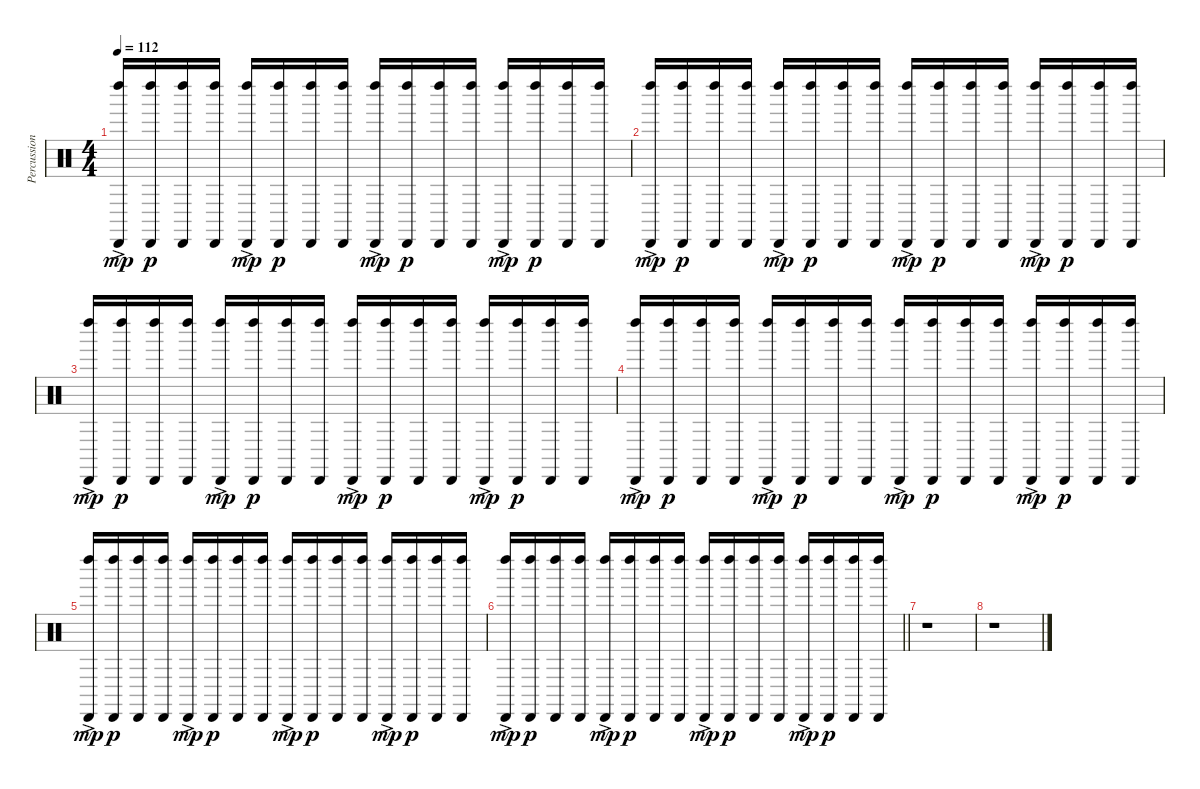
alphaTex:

\track ("Percussion" "Percussion") {instrument percussion}
\staff {score}
\articulation defaults
\ts (4 4)
\tempo 112
\clef neutral
\ks c
("Left Maraca (hit)"{ac} "Cabasa (hit)"{ac}).16{dy mp} ("Left Maraca (hit)" "Cabasa (hit)").16{dy p} ("Left Maraca (hit)" "Cabasa (hit)").16 ("Left Maraca (hit)" "Cabasa (hit)").16 ("Left Maraca (hit)"{ac} "Cabasa (hit)"{ac}).16{dy mp} ("Left Maraca (hit)" "Cabasa (hit)").16{dy p} ("Left Maraca (hit)" "Cabasa (hit)").16 ("Left Maraca (hit)" "Cabasa (hit)").16 ("Left Maraca (hit)"{ac} "Cabasa (hit)"{ac}).16{dy mp} ("Left Maraca (hit)" "Cabasa (hit)").16{dy p} ("Left Maraca (hit)" "Cabasa (hit)").16 ("Left Maraca (hit)" "Cabasa (hit)").16 ("Left Maraca (hit)"{ac} "Cabasa (hit)"{ac}).16{dy mp} ("Left Maraca (hit)" "Cabasa (hit)").16{dy p} ("Left Maraca (hit)" "Cabasa (hit)").16 ("Left Maraca (hit)" "Cabasa (hit)").16 |
("Left Maraca (hit)"{ac} "Cabasa (hit)"{ac}).16{dy mp} ("Left Maraca (hit)" "Cabasa (hit)").16{dy p} ("Left Maraca (hit)" "Cabasa (hit)").16 ("Left Maraca (hit)" "Cabasa (hit)").16 ("Left Maraca (hit)"{ac} "Cabasa (hit)"{ac}).16{dy mp} ("Left Maraca (hit)" "Cabasa (hit)").16{dy p} ("Left Maraca (hit)" "Cabasa (hit)").16 ("Left Maraca (hit)" "Cabasa (hit)").16 ("Left Maraca (hit)"{ac} "Cabasa (hit)"{ac}).16{dy mp} ("Left Maraca (hit)" "Cabasa (hit)").16{dy p} ("Left Maraca (hit)" "Cabasa (hit)").16 ("Left Maraca (hit)" "Cabasa (hit)").16 ("Left Maraca (hit)"{ac} "Cabasa (hit)"{ac}).16{dy mp} ("Left Maraca (hit)" "Cabasa (hit)").16{dy p} ("Left Maraca (hit)" "Cabasa (hit)").16 ("Left Maraca (hit)" "Cabasa (hit)").16 |
("Left Maraca (hit)"{ac} "Cabasa (hit)"{ac}).16{dy mp} ("Left Maraca (hit)" "Cabasa (hit)").16{dy p} ("Left Maraca (hit)" "Cabasa (hit)").16 ("Left Maraca (hit)" "Cabasa (hit)").16 ("Left Maraca (hit)"{ac} "Cabasa (hit)"{ac}).16{dy mp} ("Left Maraca (hit)" "Cabasa (hit)").16{dy p} ("Left Maraca (hit)" "Cabasa (hit)").16 ("Left Maraca (hit)" "Cabasa (hit)").16 ("Left Maraca (hit)"{ac} "Cabasa (hit)"{ac}).16{dy mp} ("Left Maraca (hit)" "Cabasa (hit)").16{dy p} ("Left Maraca (hit)" "Cabasa (hit)").16 ("Left Maraca (hit)" "Cabasa (hit)").16 ("Left Maraca (hit)"{ac} "Cabasa (hit)"{ac}).16{dy mp} ("Left Maraca (hit)" "Cabasa (hit)").16{dy p} ("Left Maraca (hit)" "Cabasa (hit)").16 ("Left Maraca (hit)" "Cabasa (hit)").16 |
("Left Maraca (hit)"{ac} "Cabasa (hit)"{ac}).16{dy mp} ("Left Maraca (hit)" "Cabasa (hit)").16{dy p} ("Left Maraca (hit)" "Cabasa (hit)").16 ("Left Maraca (hit)" "Cabasa (hit)").16 ("Left Maraca (hit)"{ac} "Cabasa (hit)"{ac}).16{dy mp} ("Left Maraca (hit)" "Cabasa (hit)").16{dy p} ("Left Maraca (hit)" "Cabasa (hit)").16 ("Left Maraca (hit)" "Cabasa (hit)").16 ("Left Maraca (hit)"{ac} "Cabasa (hit)"{ac}).16{dy mp} ("Left Maraca (hit)" "Cabasa (hit)").16{dy p} ("Left Maraca (hit)" "Cabasa (hit)").16 ("Left Maraca (hit)" "Cabasa (hit)").16 ("Left Maraca (hit)"{ac} "Cabasa (hit)"{ac}).16{dy mp} ("Left Maraca (hit)" "Cabasa (hit)").16{dy p} ("Left Maraca (hit)" "Cabasa (hit)").16 ("Left Maraca (hit)" "Cabasa (hit)").16 |
("Left Maraca (hit)"{ac} "Cabasa (hit)"{ac}).16{dy mp} ("Left Maraca (hit)" "Cabasa (hit)").16{dy p} ("Left Maraca (hit)" "Cabasa (hit)").16 ("Left Maraca (hit)" "Cabasa (hit)").16 ("Left Maraca (hit)"{ac} "Cabasa (hit)"{ac}).16{dy mp} ("Left Maraca (hit)" "Cabasa (hit)").16{dy p} ("Left Maraca (hit)" "Cabasa (hit)").16 ("Left Maraca (hit)" "Cabasa (hit)").16 ("Left Maraca (hit)"{ac} "Cabasa (hit)"{ac}).16{dy mp} ("Left Maraca (hit)" "Cabasa (hit)").16{dy p} ("Left Maraca (hit)" "Cabasa (hit)").16 ("Left Maraca (hit)" "Cabasa (hit)").16 ("Left Maraca (hit)"{ac} "Cabasa (hit)"{ac}).16{dy mp} ("Left Maraca (hit)" "Cabasa (hit)").16{dy p} ("Left Maraca (hit)" "Cabasa (hit)").16 ("Left Maraca (hit)" "Cabasa (hit)").16 |
\barLineRight lightlight
("Left Maraca (hit)"{ac} "Cabasa (hit)"{ac}).16{dy mp} ("Left Maraca (hit)" "Cabasa (hit)").16{dy p} ("Left Maraca (hit)" "Cabasa (hit)").16 ("Left Maraca (hit)" "Cabasa (hit)").16 ("Left Maraca (hit)"{ac} "Cabasa (hit)"{ac}).16{dy mp} ("Left Maraca (hit)" "Cabasa (hit)").16{dy p} ("Left Maraca (hit)" "Cabasa (hit)").16 ("Left Maraca (hit)" "Cabasa (hit)").16 ("Left Maraca (hit)"{ac} "Cabasa (hit)"{ac}).16{dy mp} ("Left Maraca (hit)" "Cabasa (hit)").16{dy p} ("Left Maraca (hit)" "Cabasa (hit)").16 ("Left Maraca (hit)" "Cabasa (hit)").16 ("Left Maraca (hit)"{ac} "Cabasa (hit)"{ac}).16{dy mp} ("Left Maraca (hit)" "Cabasa (hit)").16{dy p} ("Left Maraca (hit)" "Cabasa (hit)").16 ("Left Maraca (hit)" "Cabasa (hit)").16 |
r.1 |
r.1
